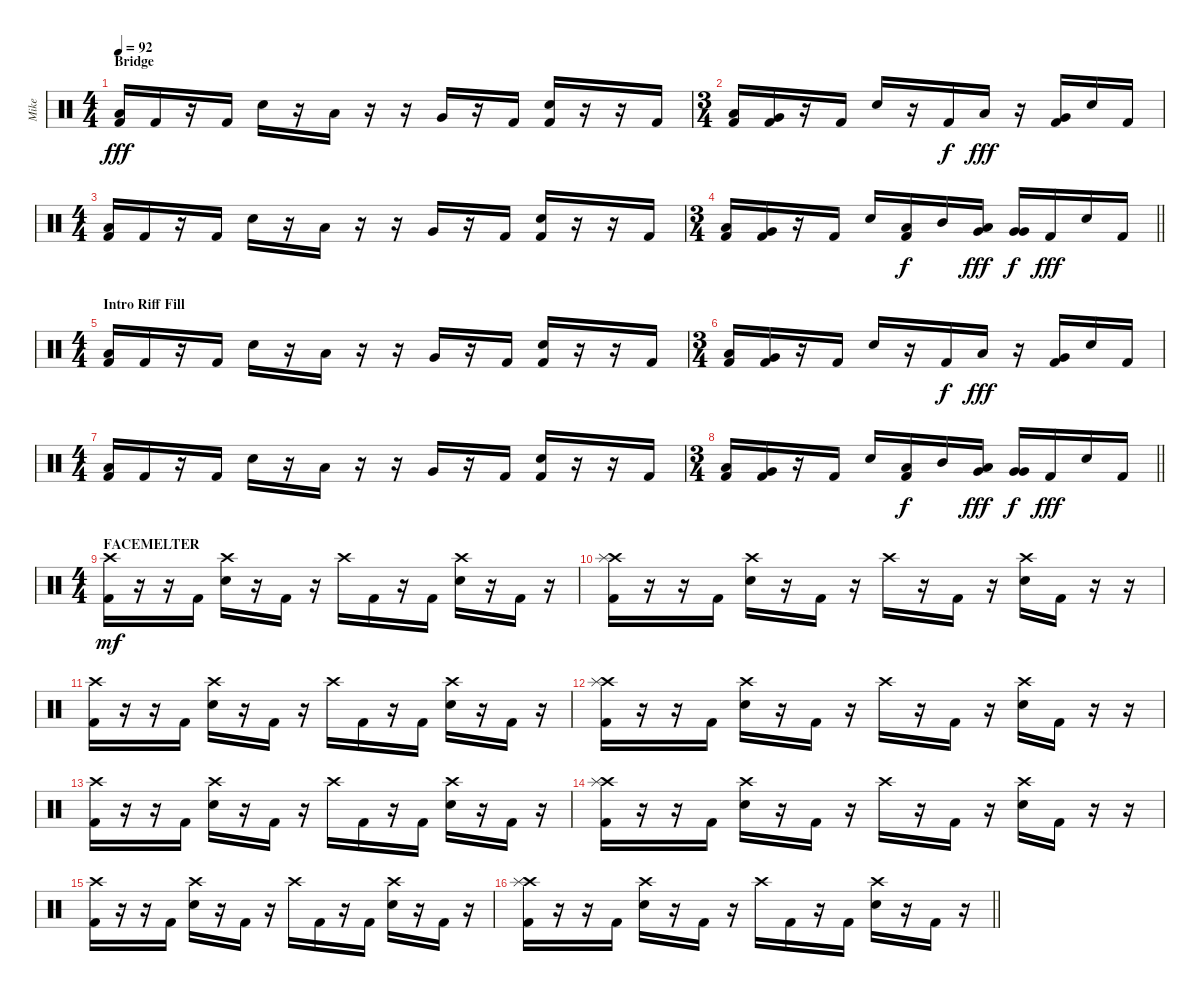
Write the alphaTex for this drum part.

\track ("Mike" "Mike") {instrument percussion}
\staff {score}
\articulation defaults
\ts (4 4)
\section ("" "Bridge")
\tempo 92
\clef neutral
\ks c
("Low Tom (hit)" "Kick (hit) 2").16{dy fff} "Kick (hit) 2".16 r.16 "Kick (hit) 2".16 "Snare (hit) 2".16 r.16 "Low Tom (hit)".16 r.16 r.16 "Very Low Tom (hit)".16 r.16 "Kick (hit) 2".16 ("Snare (hit) 2" "Kick (hit) 2").16 r.16 r.16 "Kick (hit) 2".16 |
\ts (3 4)
("Low Tom (hit)" "Kick (hit) 2").16 ("Very Low Tom (hit)" "Kick (hit) 2").16 r.16 "Kick (hit) 2".16 "Snare (hit) 2".16 r.16 "Kick (hit) 2".16{dy f} "Low Tom (hit)".16{dy fff} r.16 ("Very Low Tom (hit)" "Kick (hit) 2").16 "Snare (hit) 2".16 "Kick (hit) 2".16 |
\ts (4 4)
("Low Tom (hit)" "Kick (hit) 2").16 "Kick (hit) 2".16 r.16 "Kick (hit) 2".16 "Snare (hit) 2".16 r.16 "Low Tom (hit)".16 r.16 r.16 "Very Low Tom (hit)".16 r.16 "Kick (hit) 2".16 ("Snare (hit) 2" "Kick (hit) 2").16 r.16 r.16 "Kick (hit) 2".16 |
\ts (3 4)
\barLineRight lightlight
("Low Tom (hit)" "Kick (hit) 2").16 ("Very Low Tom (hit)" "Kick (hit) 2").16 r.16 "Kick (hit) 2".16 "Snare (hit) 2".16 ("Low Tom (hit)" "Kick (hit) 2").16{dy f} "Mid Tom (hit)".16 ("Low Tom (hit)" "Very Low Tom (hit)").16{dy fff} ("Very Low Tom (hit)" "Very Low Tom (hit)").16{dy f} "Kick (hit) 2".16{dy fff} "Snare (hit) 2".16 "Kick (hit) 2".16 |
\ts (4 4)
\section ("" "Intro Riff Fill")
("Low Tom (hit)" "Kick (hit) 2").16 "Kick (hit) 2".16 r.16 "Kick (hit) 2".16 "Snare (hit) 2".16 r.16 "Low Tom (hit)".16 r.16 r.16 "Very Low Tom (hit)".16 r.16 "Kick (hit) 2".16 ("Snare (hit) 2" "Kick (hit) 2").16 r.16 r.16 "Kick (hit) 2".16 |
\ts (3 4)
("Low Tom (hit)" "Kick (hit) 2").16 ("Very Low Tom (hit)" "Kick (hit) 2").16 r.16 "Kick (hit) 2".16 "Snare (hit) 2".16 r.16 "Kick (hit) 2".16{dy f} "Low Tom (hit)".16{dy fff} r.16 ("Very Low Tom (hit)" "Kick (hit) 2").16 "Snare (hit) 2".16 "Kick (hit) 2".16 |
\ts (4 4)
("Low Tom (hit)" "Kick (hit) 2").16 "Kick (hit) 2".16 r.16 "Kick (hit) 2".16 "Snare (hit) 2".16 r.16 "Low Tom (hit)".16 r.16 r.16 "Very Low Tom (hit)".16 r.16 "Kick (hit) 2".16 ("Snare (hit) 2" "Kick (hit) 2").16 r.16 r.16 "Kick (hit) 2".16 |
\ts (3 4)
\barLineRight lightlight
("Low Tom (hit)" "Kick (hit) 2").16 ("Very Low Tom (hit)" "Kick (hit) 2").16 r.16 "Kick (hit) 2".16 "Snare (hit) 2".16 ("Low Tom (hit)" "Kick (hit) 2").16{dy f} "Mid Tom (hit)".16 ("Low Tom (hit)" "Very Low Tom (hit)").16{dy fff} ("Very Low Tom (hit)" "Very Low Tom (hit)").16{dy f} "Kick (hit) 2".16{dy fff} "Snare (hit) 2".16 "Kick (hit) 2".16 |
\ts (4 4)
\section ("" "FACEMELTER")
("Crash high (hit)" "Kick (hit) 2").16{dy mf} r.16 r.16 "Kick (hit) 2".16 ("Crash high (hit)" "Snare (hit) 2").16 r.16 "Kick (hit) 2".16 r.16 "Crash high (hit)".16 "Kick (hit) 2".16 r.16 "Kick (hit) 2".16 ("Crash high (hit)" "Snare (hit) 2").16 r.16 "Kick (hit) 2".16 r.16 |
("Crash high (hit)" "Splash (hit)" "Kick (hit) 2").16 r.16 r.16 "Kick (hit) 2".16 ("Crash high (hit)" "Snare (hit) 2").16 r.16 "Kick (hit) 2".16 r.16 "Crash high (hit)".16 r.16 "Kick (hit) 2".16 r.16 ("Crash high (hit)" "Snare (hit) 2").16 "Kick (hit) 2".16 r.16 r.16 |
("Crash high (hit)" "Kick (hit) 2").16 r.16 r.16 "Kick (hit) 2".16 ("Crash high (hit)" "Snare (hit) 2").16 r.16 "Kick (hit) 2".16 r.16 "Crash high (hit)".16 "Kick (hit) 2".16 r.16 "Kick (hit) 2".16 ("Crash high (hit)" "Snare (hit) 2").16 r.16 "Kick (hit) 2".16 r.16 |
("Crash high (hit)" "Splash (hit)" "Kick (hit) 2").16 r.16 r.16 "Kick (hit) 2".16 ("Crash high (hit)" "Snare (hit) 2").16 r.16 "Kick (hit) 2".16 r.16 "Crash high (hit)".16 r.16 "Kick (hit) 2".16 r.16 ("Crash high (hit)" "Snare (hit) 2").16 "Kick (hit) 2".16 r.16 r.16 |
("Crash high (hit)" "Kick (hit) 2").16 r.16 r.16 "Kick (hit) 2".16 ("Crash high (hit)" "Snare (hit) 2").16 r.16 "Kick (hit) 2".16 r.16 "Crash high (hit)".16 "Kick (hit) 2".16 r.16 "Kick (hit) 2".16 ("Crash high (hit)" "Snare (hit) 2").16 r.16 "Kick (hit) 2".16 r.16 |
("Crash high (hit)" "Splash (hit)" "Kick (hit) 2").16 r.16 r.16 "Kick (hit) 2".16 ("Crash high (hit)" "Snare (hit) 2").16 r.16 "Kick (hit) 2".16 r.16 "Crash high (hit)".16 r.16 "Kick (hit) 2".16 r.16 ("Crash high (hit)" "Snare (hit) 2").16 "Kick (hit) 2".16 r.16 r.16 |
("Crash high (hit)" "Kick (hit) 2").16 r.16 r.16 "Kick (hit) 2".16 ("Crash high (hit)" "Snare (hit) 2").16 r.16 "Kick (hit) 2".16 r.16 "Crash high (hit)".16 "Kick (hit) 2".16 r.16 "Kick (hit) 2".16 ("Crash high (hit)" "Snare (hit) 2").16 r.16 "Kick (hit) 2".16 r.16 |
\barLineRight lightlight
("Crash high (hit)" "Splash (hit)" "Kick (hit) 2").16 r.16 r.16 "Kick (hit) 2".16 ("Crash high (hit)" "Snare (hit) 2").16 r.16 "Kick (hit) 2".16 r.16 "Crash high (hit)".16 "Kick (hit) 2".16 r.16 "Kick (hit) 2".16 ("Crash high (hit)" "Snare (hit) 2").16 r.16 "Kick (hit) 2".16 r.16
